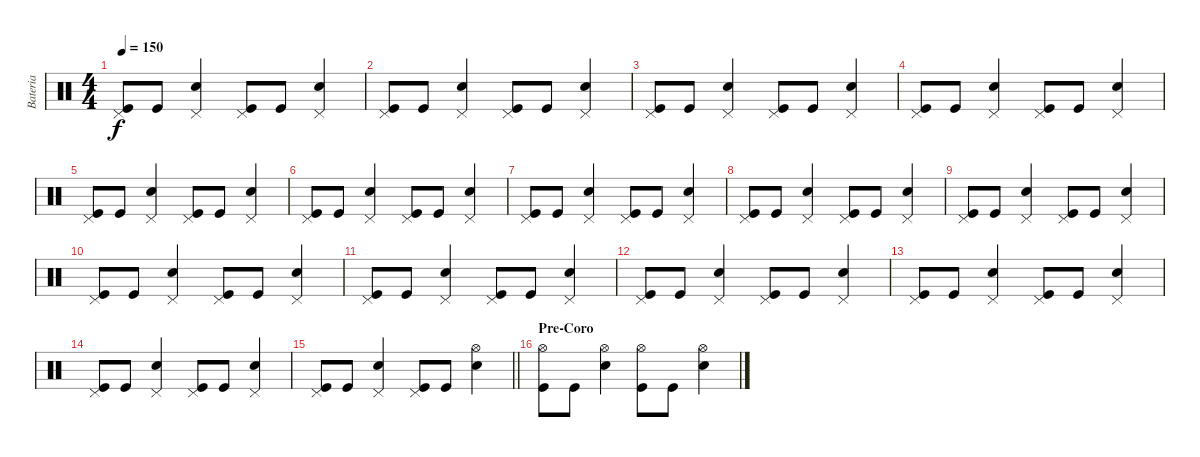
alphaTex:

\track ("Bateria" "Bateria") {instrument percussion}
\staff {score}
\articulation defaults
\ts (4 4)
\tempo 150
\clef neutral
\ks c
("Pedal Hi-Hat (hit)" "Kick (hit)").8{dy f} "Kick (hit)".8 ("Pedal Hi-Hat (hit)" "Snare (hit) 2").4 ("Pedal Hi-Hat (hit)" "Kick (hit)").8 "Kick (hit)".8 ("Pedal Hi-Hat (hit)" "Snare (hit) 2").4 |
("Pedal Hi-Hat (hit)" "Kick (hit)").8 "Kick (hit)".8 ("Pedal Hi-Hat (hit)" "Snare (hit) 2").4 ("Pedal Hi-Hat (hit)" "Kick (hit)").8 "Kick (hit)".8 ("Pedal Hi-Hat (hit)" "Snare (hit) 2").4 |
("Pedal Hi-Hat (hit)" "Kick (hit)").8 "Kick (hit)".8 ("Pedal Hi-Hat (hit)" "Snare (hit) 2").4 ("Pedal Hi-Hat (hit)" "Kick (hit)").8 "Kick (hit)".8 ("Pedal Hi-Hat (hit)" "Snare (hit) 2").4 |
("Pedal Hi-Hat (hit)" "Kick (hit)").8 "Kick (hit)".8 ("Pedal Hi-Hat (hit)" "Snare (hit) 2").4 ("Pedal Hi-Hat (hit)" "Kick (hit)").8 "Kick (hit)".8 ("Pedal Hi-Hat (hit)" "Snare (hit) 2").4 |
("Pedal Hi-Hat (hit)" "Kick (hit)").8 "Kick (hit)".8 ("Pedal Hi-Hat (hit)" "Snare (hit) 2").4 ("Pedal Hi-Hat (hit)" "Kick (hit)").8 "Kick (hit)".8 ("Pedal Hi-Hat (hit)" "Snare (hit) 2").4 |
("Pedal Hi-Hat (hit)" "Kick (hit)").8 "Kick (hit)".8 ("Pedal Hi-Hat (hit)" "Snare (hit) 2").4 ("Pedal Hi-Hat (hit)" "Kick (hit)").8 "Kick (hit)".8 ("Pedal Hi-Hat (hit)" "Snare (hit) 2").4 |
("Pedal Hi-Hat (hit)" "Kick (hit)").8 "Kick (hit)".8 ("Pedal Hi-Hat (hit)" "Snare (hit) 2").4 ("Pedal Hi-Hat (hit)" "Kick (hit)").8 "Kick (hit)".8 ("Pedal Hi-Hat (hit)" "Snare (hit) 2").4 |
("Pedal Hi-Hat (hit)" "Kick (hit)").8 "Kick (hit)".8 ("Pedal Hi-Hat (hit)" "Snare (hit) 2").4 ("Pedal Hi-Hat (hit)" "Kick (hit)").8 "Kick (hit)".8 ("Pedal Hi-Hat (hit)" "Snare (hit) 2").4 |
("Pedal Hi-Hat (hit)" "Kick (hit)").8 "Kick (hit)".8 ("Pedal Hi-Hat (hit)" "Snare (hit) 2").4 ("Pedal Hi-Hat (hit)" "Kick (hit)").8 "Kick (hit)".8 ("Pedal Hi-Hat (hit)" "Snare (hit) 2").4 |
("Pedal Hi-Hat (hit)" "Kick (hit)").8 "Kick (hit)".8 ("Pedal Hi-Hat (hit)" "Snare (hit) 2").4 ("Pedal Hi-Hat (hit)" "Kick (hit)").8 "Kick (hit)".8 ("Pedal Hi-Hat (hit)" "Snare (hit) 2").4 |
("Pedal Hi-Hat (hit)" "Kick (hit)").8 "Kick (hit)".8 ("Pedal Hi-Hat (hit)" "Snare (hit) 2").4 ("Pedal Hi-Hat (hit)" "Kick (hit)").8 "Kick (hit)".8 ("Pedal Hi-Hat (hit)" "Snare (hit) 2").4 |
("Pedal Hi-Hat (hit)" "Kick (hit)").8 "Kick (hit)".8 ("Pedal Hi-Hat (hit)" "Snare (hit) 2").4 ("Pedal Hi-Hat (hit)" "Kick (hit)").8 "Kick (hit)".8 ("Pedal Hi-Hat (hit)" "Snare (hit) 2").4 |
("Pedal Hi-Hat (hit)" "Kick (hit)").8 "Kick (hit)".8 ("Pedal Hi-Hat (hit)" "Snare (hit) 2").4 ("Pedal Hi-Hat (hit)" "Kick (hit)").8 "Kick (hit)".8 ("Pedal Hi-Hat (hit)" "Snare (hit) 2").4 |
("Pedal Hi-Hat (hit)" "Kick (hit)").8 "Kick (hit)".8 ("Pedal Hi-Hat (hit)" "Snare (hit) 2").4 ("Pedal Hi-Hat (hit)" "Kick (hit)").8 "Kick (hit)".8 ("Pedal Hi-Hat (hit)" "Snare (hit) 2").4 |
\barLineRight lightlight
("Pedal Hi-Hat (hit)" "Kick (hit)").8 "Kick (hit)".8 ("Pedal Hi-Hat (hit)" "Snare (hit) 2").4 ("Pedal Hi-Hat (hit)" "Kick (hit)").8 "Kick (hit)".8 ("Hi-Hat (open)" "Snare (hit) 2").4 |
\section ("" "Pre-Coro")
("Hi-Hat (open)" "Kick (hit)").8 "Kick (hit)".8 ("Hi-Hat (open)" "Snare (hit) 2").4 ("Hi-Hat (open)" "Kick (hit)").8 "Kick (hit)".8 ("Hi-Hat (open)" "Snare (hit) 2").4
